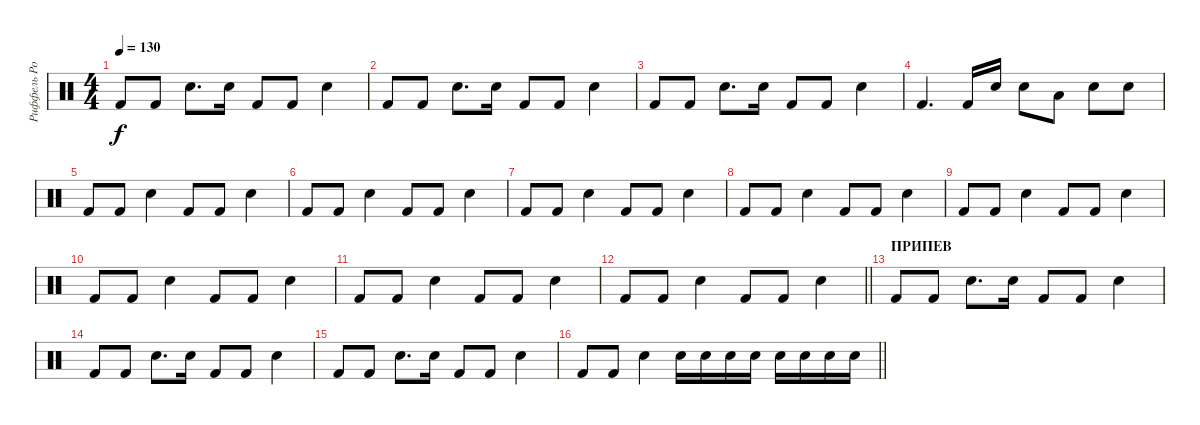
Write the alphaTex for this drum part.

\track ("Риффель Роман(Главные)" "Риффель Ро") {instrument percussion}
\staff {score}
\articulation defaults
\ts (4 4)
\tempo 130
\clef neutral
\ks c "Kick (hit) 2".8{dy f} "Kick (hit) 2".8 "Electric Snare (hit)".8{d} "Electric Snare (hit)".16 "Kick (hit) 2".8 "Kick (hit) 2".8 "Electric Snare (hit)".4
|
"Kick (hit) 2".8 "Kick (hit) 2".8 "Electric Snare (hit)".8{d} "Electric Snare (hit)".16 "Kick (hit) 2".8 "Kick (hit) 2".8 "Electric Snare (hit)".4 |
"Kick (hit) 2".8 "Kick (hit) 2".8 "Electric Snare (hit)".8{d} "Electric Snare (hit)".16 "Kick (hit) 2".8 "Kick (hit) 2".8 "Electric Snare (hit)".4 |
"Kick (hit) 2".4{d} "Kick (hit) 2".16 "Electric Snare (hit)".16 "Electric Snare (hit)".8 "Low Tom (hit)".8 "Electric Snare (hit)".8 "Electric Snare (hit)".8 |
"Kick (hit) 2".8 "Kick (hit) 2".8 "Electric Snare (hit)".4 "Kick (hit) 2".8 "Kick (hit) 2".8 "Electric Snare (hit)".4 |
"Kick (hit) 2".8 "Kick (hit) 2".8 "Electric Snare (hit)".4 "Kick (hit) 2".8 "Kick (hit) 2".8 "Electric Snare (hit)".4 |
"Kick (hit) 2".8 "Kick (hit) 2".8 "Electric Snare (hit)".4 "Kick (hit) 2".8 "Kick (hit) 2".8 "Electric Snare (hit)".4 |
"Kick (hit) 2".8 "Kick (hit) 2".8 "Electric Snare (hit)".4 "Kick (hit) 2".8 "Kick (hit) 2".8 "Electric Snare (hit)".4 |
"Kick (hit) 2".8 "Kick (hit) 2".8 "Electric Snare (hit)".4 "Kick (hit) 2".8 "Kick (hit) 2".8 "Electric Snare (hit)".4 |
"Kick (hit) 2".8 "Kick (hit) 2".8 "Electric Snare (hit)".4 "Kick (hit) 2".8 "Kick (hit) 2".8 "Electric Snare (hit)".4 |
"Kick (hit) 2".8 "Kick (hit) 2".8 "Electric Snare (hit)".4 "Kick (hit) 2".8 "Kick (hit) 2".8 "Electric Snare (hit)".4 |
\barLineRight lightlight "Kick (hit) 2".8 "Kick (hit) 2".8 "Electric Snare (hit)".4 "Kick (hit) 2".8 "Kick (hit) 2".8 "Electric Snare (hit)".4
|
\section ("" "ПРИПЕВ")
"Kick (hit) 2".8 "Kick (hit) 2".8 "Electric Snare (hit)".8{d} "Electric Snare (hit)".16 "Kick (hit) 2".8 "Kick (hit) 2".8 "Electric Snare (hit)".4 |
"Kick (hit) 2".8 "Kick (hit) 2".8 "Electric Snare (hit)".8{d} "Electric Snare (hit)".16 "Kick (hit) 2".8 "Kick (hit) 2".8 "Electric Snare (hit)".4 |
"Kick (hit) 2".8 "Kick (hit) 2".8 "Electric Snare (hit)".8{d} "Electric Snare (hit)".16 "Kick (hit) 2".8 "Kick (hit) 2".8 "Electric Snare (hit)".4 |
\barLineRight lightlight "Kick (hit) 2".8 "Kick (hit) 2".8 "Electric Snare (hit)".4 "Electric Snare (hit)".16 "Electric Snare (hit)".16 "Electric Snare (hit)".16 "Electric Snare (hit)".16 "Electric Snare (hit)".16 "Electric Snare (hit)".16 "Electric Snare (hit)".16 "Electric Snare (hit)".16
